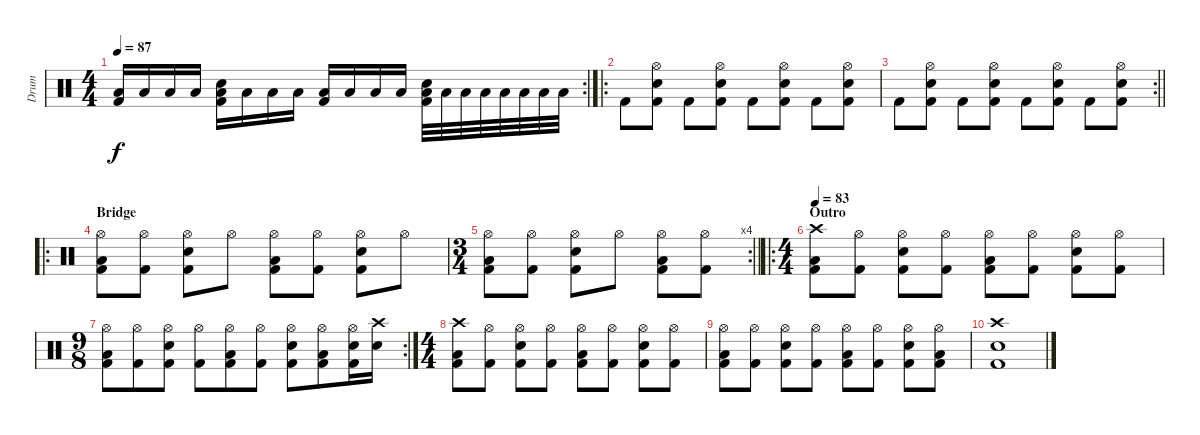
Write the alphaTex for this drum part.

\track ("Drum" "Drum") {instrument percussion}
\staff {score}
\articulation defaults
\rc 2
\ts (4 4)
\tempo 87
\clef neutral
\ks c
("Low Tom (hit)" "Kick (hit) 2").16{dy f} "Low Tom (hit)".16 "Low Tom (hit)".16 "Low Tom (hit)".16 ("Low Tom (hit)" "Electric Snare (hit)" "Kick (hit) 2").16 "Low Tom (hit)".16 "Low Tom (hit)".16 "Low Tom (hit)".16 ("Low Tom (hit)" "Kick (hit) 2").16 "Low Tom (hit)".16 "Low Tom (hit)".16 "Low Tom (hit)".16 ("Low Tom (hit)" "Electric Snare (hit)" "Kick (hit) 2").32 "Low Tom (hit)".32 "Low Tom (hit)".32 "Low Tom (hit)".32 "Low Tom (hit)".32 "Low Tom (hit)".32 "Low Tom (hit)".32 "Low Tom (hit)".32 |
\ro "Kick (hit) 2".8
("Hi-Hat (open)" "Electric Snare (hit)" "Kick (hit) 2").8 "Kick (hit) 2".8 ("Hi-Hat (open)" "Electric Snare (hit)" "Kick (hit) 2").8 "Kick (hit) 2".8 ("Hi-Hat (open)" "Electric Snare (hit)" "Kick (hit) 2").8 "Kick (hit) 2".8 ("Hi-Hat (open)" "Electric Snare (hit)" "Kick (hit) 2").8 |
\rc 2
\barLineRight lightlight "Kick (hit) 2".8
("Hi-Hat (open)" "Electric Snare (hit)" "Kick (hit) 2").8 "Kick (hit) 2".8 ("Hi-Hat (open)" "Electric Snare (hit)" "Kick (hit) 2").8 "Kick (hit) 2".8 ("Hi-Hat (open)" "Electric Snare (hit)" "Kick (hit) 2").8 "Kick (hit) 2".8 ("Hi-Hat (open)" "Electric Snare (hit)" "Kick (hit) 2").8 |
\ro
\section ("" "Bridge")
("Hi-Hat (open)" "Low Floor Tom (hit)" "Kick (hit) 2").8 ("Hi-Hat (open)" "Kick (hit) 2").8 ("Hi-Hat (open)" "Electric Snare (hit)" "Kick (hit) 2").8 "Hi-Hat (open)".8 ("Hi-Hat (open)" "Low Floor Tom (hit)" "Kick (hit) 2").8 ("Hi-Hat (open)" "Kick (hit) 2").8 ("Hi-Hat (open)" "Electric Snare (hit)" "Kick (hit) 2").8 "Hi-Hat (open)".8 |
\rc 4
\ts (3 4)
\barLineRight lightlight
("Hi-Hat (open)" "Low Floor Tom (hit)" "Kick (hit) 2").8 ("Hi-Hat (open)" "Kick (hit) 2").8 ("Hi-Hat (open)" "Electric Snare (hit)" "Kick (hit) 2").8 "Hi-Hat (open)".8 ("Hi-Hat (open)" "Low Floor Tom (hit)" "Kick (hit) 2").8 ("Hi-Hat (open)" "Kick (hit) 2").8 |
\ro
\ts (4 4)
\section ("" "Outro")
\tempo 83
("Crash high (hit)" "Low Floor Tom (hit)" "Kick (hit) 2").8 ("Hi-Hat (open)" "Kick (hit) 2").8 ("Hi-Hat (open)" "Electric Snare (hit)" "Kick (hit) 2").8 ("Hi-Hat (open)" "Kick (hit) 2").8 ("Hi-Hat (open)" "Low Floor Tom (hit)" "Kick (hit) 2").8 ("Hi-Hat (open)" "Kick (hit) 2").8 ("Hi-Hat (open)" "Electric Snare (hit)" "Kick (hit) 2").8 ("Hi-Hat (open)" "Kick (hit) 2").8 |
\rc 2
\ts (9 8)
("Hi-Hat (open)" "Low Floor Tom (hit)" "Kick (hit) 2").8 ("Hi-Hat (open)" "Kick (hit) 2").8 ("Hi-Hat (open)" "Electric Snare (hit)" "Kick (hit) 2").8 ("Hi-Hat (open)" "Kick (hit) 2").8 ("Hi-Hat (open)" "Low Floor Tom (hit)" "Kick (hit) 2").8 ("Hi-Hat (open)" "Kick (hit) 2").8 ("Hi-Hat (open)" "Electric Snare (hit)" "Kick (hit) 2").8 ("Hi-Hat (open)" "Low Floor Tom (hit)" "Kick (hit) 2").8 ("Hi-Hat (open)" "Electric Snare (hit)" "Kick (hit) 2").16 ("Crash high (hit)" "Electric Snare (hit)").16 |
\ts (4 4)
("Crash high (hit)" "Low Floor Tom (hit)" "Kick (hit) 2").8 ("Hi-Hat (open)" "Kick (hit) 2").8 ("Hi-Hat (open)" "Electric Snare (hit)" "Kick (hit) 2").8 ("Hi-Hat (open)" "Kick (hit) 2").8 ("Hi-Hat (open)" "Low Floor Tom (hit)" "Kick (hit) 2").8 ("Hi-Hat (open)" "Kick (hit) 2").8 ("Hi-Hat (open)" "Electric Snare (hit)" "Kick (hit) 2").8 ("Hi-Hat (open)" "Kick (hit) 2").8 |
("Hi-Hat (open)" "Low Floor Tom (hit)" "Kick (hit) 2").8 ("Hi-Hat (open)" "Kick (hit) 2").8 ("Hi-Hat (open)" "Electric Snare (hit)" "Kick (hit) 2").8 ("Hi-Hat (open)" "Kick (hit) 2").8 ("Hi-Hat (open)" "Low Floor Tom (hit)" "Kick (hit) 2").8 ("Hi-Hat (open)" "Kick (hit) 2").8 ("Hi-Hat (open)" "Electric Snare (hit)" "Kick (hit) 2").8 ("Hi-Hat (open)" "Low Floor Tom (hit)" "Kick (hit) 2").8 |
("Crash high (hit)" "Electric Snare (hit)" "Kick (hit) 2").1
